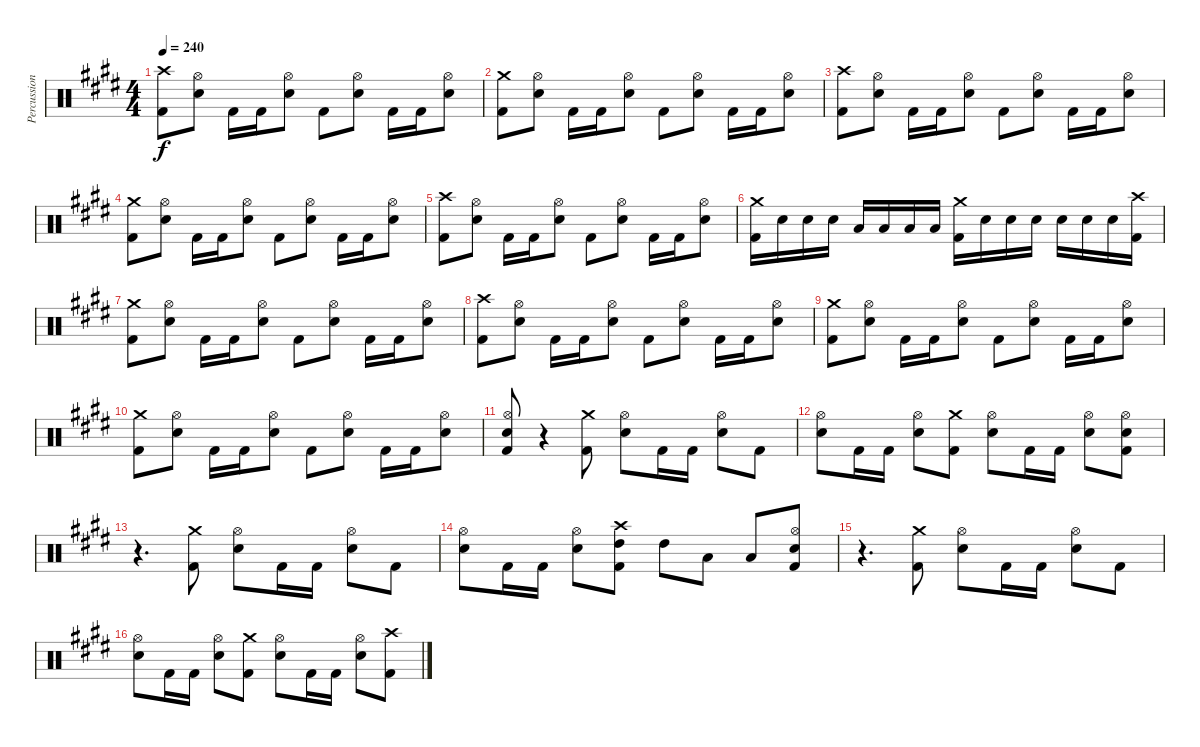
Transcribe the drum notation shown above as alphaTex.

\track ("Percussion" "Percussion") {instrument percussion}
\staff {score}
\articulation defaults
\ts (4 4)
\tempo 240
\clef neutral
\ks e
("Crash high (hit)" "Kick (hit) 2").8{dy f} ("Hi-Hat (open)" "Snare (hit) 2").8 "Kick (hit) 2".16 "Kick (hit) 2".16 ("Hi-Hat (open)" "Snare (hit) 2").8 "Kick (hit) 2".8 ("Hi-Hat (open)" "Snare (hit) 2").8 "Kick (hit) 2".16 "Kick (hit) 2".16 ("Hi-Hat (open)" "Snare (hit) 2").8 |
("Crash medium (hit)" "Kick (hit) 2").8 ("Hi-Hat (open)" "Snare (hit) 2").8 "Kick (hit) 2".16 "Kick (hit) 2".16 ("Hi-Hat (open)" "Snare (hit) 2").8 "Kick (hit) 2".8 ("Hi-Hat (open)" "Snare (hit) 2").8 "Kick (hit) 2".16 "Kick (hit) 2".16 ("Hi-Hat (open)" "Snare (hit) 2").8 |
("Crash high (hit)" "Kick (hit) 2").8 ("Hi-Hat (open)" "Snare (hit) 2").8 "Kick (hit) 2".16 "Kick (hit) 2".16 ("Hi-Hat (open)" "Snare (hit) 2").8 "Kick (hit) 2".8 ("Hi-Hat (open)" "Snare (hit) 2").8 "Kick (hit) 2".16 "Kick (hit) 2".16 ("Hi-Hat (open)" "Snare (hit) 2").8 |
("Crash medium (hit)" "Kick (hit) 2").8 ("Hi-Hat (open)" "Snare (hit) 2").8 "Kick (hit) 2".16 "Kick (hit) 2".16 ("Hi-Hat (open)" "Snare (hit) 2").8 "Kick (hit) 2".8 ("Hi-Hat (open)" "Snare (hit) 2").8 "Kick (hit) 2".16 "Kick (hit) 2".16 ("Hi-Hat (open)" "Snare (hit) 2").8 |
("Crash high (hit)" "Kick (hit) 2").8 ("Hi-Hat (open)" "Snare (hit) 2").8 "Kick (hit) 2".16 "Kick (hit) 2".16 ("Hi-Hat (open)" "Snare (hit) 2").8 "Kick (hit) 2".8 ("Hi-Hat (open)" "Snare (hit) 2").8 "Kick (hit) 2".16 "Kick (hit) 2".16 ("Hi-Hat (open)" "Snare (hit) 2").8 |
("Crash medium (hit)" "Kick (hit) 2").16 "Snare (hit) 2".16 "Snare (hit) 2".16 "Snare (hit) 2".16 "Low Tom (hit)".16 "Low Tom (hit)".16 "Low Floor Tom (hit)".16 "Low Floor Tom (hit)".16 ("Crash medium (hit)" "Kick (hit) 2").16 "Snare (hit) 2".16 "Snare (hit) 2".16 "Snare (hit) 2".16 "Snare (hit) 2".16 "Snare (hit) 2".16 "Snare (hit) 2".16 ("Crash high (hit)" "Kick (hit) 2").16 |
("Crash medium (hit)" "Kick (hit) 2").8 ("Hi-Hat (open)" "Snare (hit) 2").8 "Kick (hit) 2".16 "Kick (hit) 2".16 ("Hi-Hat (open)" "Snare (hit) 2").8 "Kick (hit) 2".8 ("Hi-Hat (open)" "Snare (hit) 2").8 "Kick (hit) 2".16 "Kick (hit) 2".16 ("Hi-Hat (open)" "Snare (hit) 2").8 |
("Crash high (hit)" "Kick (hit) 2").8 ("Hi-Hat (open)" "Snare (hit) 2").8 "Kick (hit) 2".16 "Kick (hit) 2".16 ("Hi-Hat (open)" "Snare (hit) 2").8 "Kick (hit) 2".8 ("Hi-Hat (open)" "Snare (hit) 2").8 "Kick (hit) 2".16 "Kick (hit) 2".16 ("Hi-Hat (open)" "Snare (hit) 2").8 |
("Crash medium (hit)" "Kick (hit) 2").8 ("Hi-Hat (open)" "Snare (hit) 2").8 "Kick (hit) 2".16 "Kick (hit) 2".16 ("Hi-Hat (open)" "Snare (hit) 2").8 "Kick (hit) 2".8 ("Hi-Hat (open)" "Snare (hit) 2").8 "Kick (hit) 2".16 "Kick (hit) 2".16 ("Hi-Hat (open)" "Snare (hit) 2").8 |
("Crash medium (hit)" "Kick (hit) 2").8 ("Hi-Hat (open)" "Snare (hit) 2").8 "Kick (hit) 2".16 "Kick (hit) 2".16 ("Hi-Hat (open)" "Snare (hit) 2").8 "Kick (hit) 2".8 ("Hi-Hat (open)" "Snare (hit) 2").8 "Kick (hit) 2".16 "Kick (hit) 2".16 ("Hi-Hat (open)" "Snare (hit) 2").8 |
("Hi-Hat (open)" "Snare (hit) 2" "Kick (hit) 2").8 r.4 ("Crash medium (hit)" "Kick (hit) 2").8 ("Hi-Hat (open)" "Snare (hit) 2").8 "Kick (hit) 2".16 "Kick (hit) 2".16 ("Hi-Hat (open)" "Snare (hit) 2").8 "Kick (hit) 2".8 |
("Hi-Hat (open)" "Snare (hit) 2").8 "Kick (hit) 2".16 "Kick (hit) 2".16 ("Hi-Hat (open)" "Snare (hit) 2").8 ("Crash medium (hit)" "Kick (hit) 2").8 ("Hi-Hat (open)" "Snare (hit) 2").8 "Kick (hit) 2".16 "Kick (hit) 2".16 ("Hi-Hat (open)" "Snare (hit) 2").8 ("Hi-Hat (open)" "Snare (hit) 2" "Kick (hit) 2").8 |
r.4{d} ("Crash medium (hit)" "Kick (hit) 2").8 ("Hi-Hat (open)" "Snare (hit) 2").8 "Kick (hit) 2".16 "Kick (hit) 2".16 ("Hi-Hat (open)" "Snare (hit) 2").8 "Kick (hit) 2".8 |
("Hi-Hat (open)" "Snare (hit) 2").8 "Kick (hit) 2".16 "Kick (hit) 2".16 ("Hi-Hat (open)" "Snare (hit) 2").8 ("Crash high (hit)" "High Tom (hit)" "Kick (hit) 2").8 "High Tom (hit)".8 "Low Tom (hit)".8 "Low Tom (hit)".8 ("Hi-Hat (open)" "Snare (hit) 2" "Kick (hit) 2").8 |
r.4{d} ("Crash medium (hit)" "Kick (hit) 2").8 ("Hi-Hat (open)" "Snare (hit) 2").8 "Kick (hit) 2".16 "Kick (hit) 2".16 ("Hi-Hat (open)" "Snare (hit) 2").8 "Kick (hit) 2".8 |
("Hi-Hat (open)" "Snare (hit) 2").8 "Kick (hit) 2".16 "Kick (hit) 2".16 ("Hi-Hat (open)" "Snare (hit) 2").8 ("Crash medium (hit)" "Kick (hit) 2").8 ("Hi-Hat (open)" "Snare (hit) 2").8 "Kick (hit) 2".16 "Kick (hit) 2".16 ("Hi-Hat (open)" "Snare (hit) 2").8 ("Crash high (hit)" "Kick (hit) 2").8
